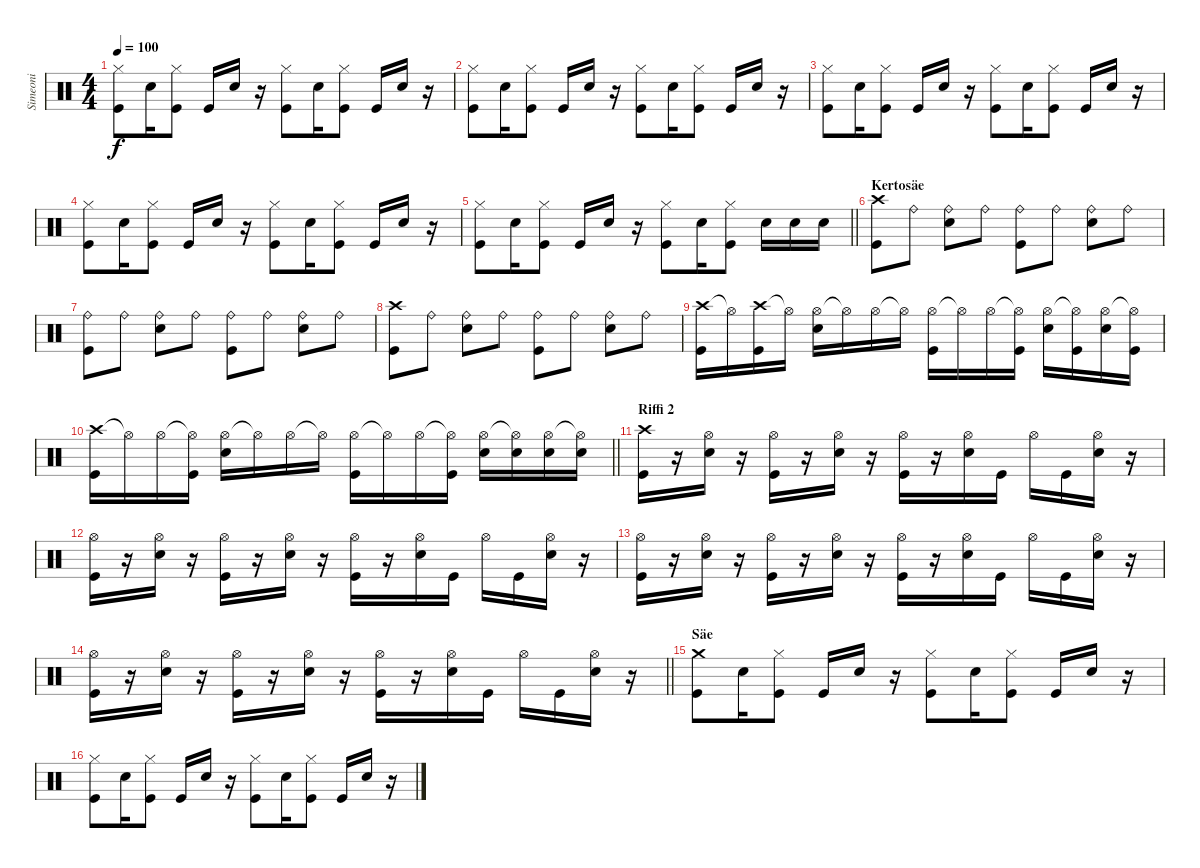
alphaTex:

\track ("Simeoni" "Simeoni") {instrument percussion}
\staff {score}
\articulation defaults
\ts (4 4)
\tempo 100
\clef neutral
\ks c
("Hi-Hat (closed)" "Kick (hit)").8{dy f} "Electric Snare (hit)".16 ("Hi-Hat (closed)" "Kick (hit)").8 "Kick (hit)".16 "Electric Snare (hit)".16 r.16 ("Hi-Hat (closed)" "Kick (hit)").8 "Electric Snare (hit)".16 ("Hi-Hat (closed)" "Kick (hit)").8 "Kick (hit)".16 "Electric Snare (hit)".16 r.16 |
("Hi-Hat (closed)" "Kick (hit)").8 "Electric Snare (hit)".16 ("Hi-Hat (closed)" "Kick (hit)").8 "Kick (hit)".16 "Electric Snare (hit)".16 r.16 ("Hi-Hat (closed)" "Kick (hit)").8 "Electric Snare (hit)".16 ("Hi-Hat (closed)" "Kick (hit)").8 "Kick (hit)".16 "Electric Snare (hit)".16 r.16 |
("Hi-Hat (closed)" "Kick (hit)").8 "Electric Snare (hit)".16 ("Hi-Hat (closed)" "Kick (hit)").8 "Kick (hit)".16 "Electric Snare (hit)".16 r.16 ("Hi-Hat (closed)" "Kick (hit)").8 "Electric Snare (hit)".16 ("Hi-Hat (closed)" "Kick (hit)").8 "Kick (hit)".16 "Electric Snare (hit)".16 r.16 |
("Hi-Hat (closed)" "Kick (hit)").8 "Electric Snare (hit)".16 ("Hi-Hat (closed)" "Kick (hit)").8 "Kick (hit)".16 "Electric Snare (hit)".16 r.16 ("Hi-Hat (closed)" "Kick (hit)").8 "Electric Snare (hit)".16 ("Hi-Hat (closed)" "Kick (hit)").8 "Kick (hit)".16 "Electric Snare (hit)".16 r.16 |
\barLineRight lightlight
("Hi-Hat (closed)" "Kick (hit)").8 "Electric Snare (hit)".16 ("Hi-Hat (closed)" "Kick (hit)").8 "Kick (hit)".16 "Electric Snare (hit)".16 r.16 ("Hi-Hat (closed)" "Kick (hit)").8 "Electric Snare (hit)".16 ("Hi-Hat (closed)" "Kick (hit)").8 "Electric Snare (hit)".16 "Electric Snare (hit)".16 "Electric Snare (hit)".16 |
\section ("" "Kertosäe")
("Crash high (hit)" "Kick (hit)").8 "Ride (bell)".8 ("Ride (bell)" "Electric Snare (hit)").8 "Ride (bell)".8 ("Ride (bell)" "Kick (hit)").8 "Ride (bell)".8 ("Ride (bell)" "Electric Snare (hit)").8 "Ride (bell)".8 |
("Ride (bell)" "Kick (hit)").8 "Ride (bell)".8 ("Ride (bell)" "Electric Snare (hit)").8 "Ride (bell)".8 ("Ride (bell)" "Kick (hit)").8 "Ride (bell)".8 ("Ride (bell)" "Electric Snare (hit)").8 "Ride (bell)".8 |
("Crash high (hit)" "Kick (hit)").8 "Ride (bell)".8 ("Ride (bell)" "Electric Snare (hit)").8 "Ride (bell)".8 ("Ride (bell)" "Kick (hit)").8 "Ride (bell)".8 ("Ride (bell)" "Electric Snare (hit)").8 "Ride (bell)".8 |
("Crash high (hit)" "Kick (hit)").16 "Hi-Hat (open)"{t}.16 ("Crash high (hit)" "Kick (hit)").16 "Hi-Hat (open)"{t}.16 ("Hi-Hat (open)" "Electric Snare (hit)").16 "Hi-Hat (open)"{t}.16 "Hi-Hat (open)".16 "Hi-Hat (open)"{t}.16 ("Hi-Hat (open)" "Kick (hit)").16 "Hi-Hat (open)"{t}.16 "Hi-Hat (open)".16 ("Hi-Hat (open)"{t} "Kick (hit)").16 ("Hi-Hat (open)" "Electric Snare (hit)").16 ("Hi-Hat (open)"{t} "Kick (hit)").16 ("Hi-Hat (open)" "Electric Snare (hit)").16 ("Hi-Hat (open)"{t} "Kick (hit)").16 |
\barLineRight lightlight
("Crash high (hit)" "Kick (hit)").16 "Hi-Hat (open)"{t}.16 "Hi-Hat (open)".16 ("Hi-Hat (open)"{t} "Kick (hit)").16 ("Hi-Hat (open)" "Electric Snare (hit)").16 "Hi-Hat (open)"{t}.16 "Hi-Hat (open)".16 "Hi-Hat (open)"{t}.16 ("Hi-Hat (open)" "Kick (hit)").16 "Hi-Hat (open)"{t}.16 "Hi-Hat (open)".16 ("Hi-Hat (open)"{t} "Kick (hit)").16 ("Hi-Hat (open)" "Electric Snare (hit)").16 ("Hi-Hat (open)"{t} "Electric Snare (hit)").16 ("Hi-Hat (open)" "Electric Snare (hit)").16 ("Hi-Hat (open)"{t} "Electric Snare (hit)").16 |
\section ("" "Riffi 2")
("Crash high (hit)" "Kick (hit)").16 r.16 ("Hi-Hat (open)" "Electric Snare (hit)").16 r.16 ("Hi-Hat (open)" "Kick (hit)").16 r.16 ("Hi-Hat (open)" "Electric Snare (hit)").16 r.16 ("Hi-Hat (open)" "Kick (hit)").16 r.16 ("Hi-Hat (open)" "Electric Snare (hit)").16 "Kick (hit)".16 "Hi-Hat (open)".16 "Kick (hit)".16 ("Hi-Hat (open)" "Electric Snare (hit)").16 r.16 |
("Hi-Hat (open)" "Kick (hit)").16 r.16 ("Hi-Hat (open)" "Electric Snare (hit)").16 r.16 ("Hi-Hat (open)" "Kick (hit)").16 r.16 ("Hi-Hat (open)" "Electric Snare (hit)").16 r.16 ("Hi-Hat (open)" "Kick (hit)").16 r.16 ("Hi-Hat (open)" "Electric Snare (hit)").16 "Kick (hit)".16 "Hi-Hat (open)".16 "Kick (hit)".16 ("Hi-Hat (open)" "Electric Snare (hit)").16 r.16 |
("Hi-Hat (open)" "Kick (hit)").16 r.16 ("Hi-Hat (open)" "Electric Snare (hit)").16 r.16 ("Hi-Hat (open)" "Kick (hit)").16 r.16 ("Hi-Hat (open)" "Electric Snare (hit)").16 r.16 ("Hi-Hat (open)" "Kick (hit)").16 r.16 ("Hi-Hat (open)" "Electric Snare (hit)").16 "Kick (hit)".16 "Hi-Hat (open)".16 "Kick (hit)".16 ("Hi-Hat (open)" "Electric Snare (hit)").16 r.16 |
\barLineRight lightlight
("Hi-Hat (open)" "Kick (hit)").16 r.16 ("Hi-Hat (open)" "Electric Snare (hit)").16 r.16 ("Hi-Hat (open)" "Kick (hit)").16 r.16 ("Hi-Hat (open)" "Electric Snare (hit)").16 r.16 ("Hi-Hat (open)" "Kick (hit)").16 r.16 ("Hi-Hat (open)" "Electric Snare (hit)").16 "Kick (hit)".16 "Hi-Hat (open)".16 "Kick (hit)".16 ("Hi-Hat (open)" "Electric Snare (hit)").16 r.16 |
\section ("" "Säe")
("Crash medium (hit)" "Kick (hit)").8 "Electric Snare (hit)".16 ("Hi-Hat (closed)" "Kick (hit)").8 "Kick (hit)".16 "Electric Snare (hit)".16 r.16 ("Hi-Hat (closed)" "Kick (hit)").8 "Electric Snare (hit)".16 ("Hi-Hat (closed)" "Kick (hit)").8 "Kick (hit)".16 "Electric Snare (hit)".16 r.16 |
("Hi-Hat (closed)" "Kick (hit)").8 "Electric Snare (hit)".16 ("Hi-Hat (closed)" "Kick (hit)").8 "Kick (hit)".16 "Electric Snare (hit)".16 r.16 ("Hi-Hat (closed)" "Kick (hit)").8 "Electric Snare (hit)".16 ("Hi-Hat (closed)" "Kick (hit)").8 "Kick (hit)".16 "Electric Snare (hit)".16 r.16
